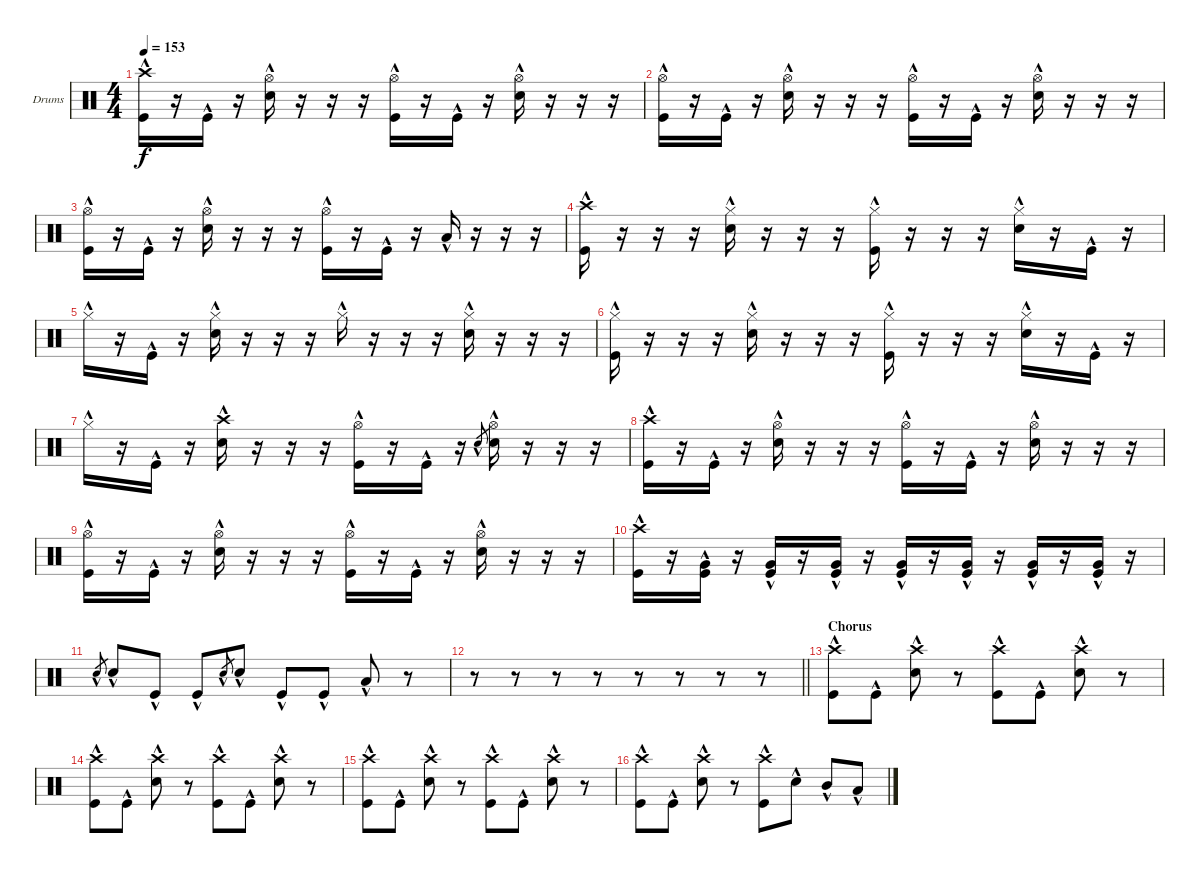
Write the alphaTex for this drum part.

\bracketExtendMode groupsimilarinstruments
\firstSystemTrackNameOrientation horizontal
\otherSystemsTrackNameOrientation horizontal
\track ("Drumkit" "Drums") {solo instrument percussion}
\staff {score}
\articulation defaults
\ts (4 4)
\tempo 153
\clef neutral
\ks c
("Crash high (hit)"{hac} "Kick (hit)"{hac}).16{dy f} r.16 "Kick (hit)"{hac}.16 r.16 ("Hi-Hat (open)"{hac} "Snare (hit) 2"{hac}).16 r.16 r.16 r.16 ("Hi-Hat (open)"{hac} "Kick (hit)"{hac}).16 r.16 "Kick (hit)"{hac}.16 r.16 ("Hi-Hat (open)"{hac} "Snare (hit) 2"{hac}).16 r.16 r.16 r.16 |
("Hi-Hat (open)"{hac} "Kick (hit)"{hac}).16 r.16 "Kick (hit)"{hac}.16 r.16 ("Hi-Hat (open)"{hac} "Snare (hit) 2"{hac}).16 r.16 r.16 r.16 ("Hi-Hat (open)"{hac} "Kick (hit)"{hac}).16 r.16 "Kick (hit)"{hac}.16 r.16 ("Hi-Hat (open)"{hac} "Snare (hit) 2"{hac}).16 r.16 r.16 r.16 |
("Hi-Hat (open)"{hac} "Kick (hit)"{hac}).16 r.16 "Kick (hit)"{hac}.16 r.16 ("Hi-Hat (open)"{hac} "Snare (hit) 2"{hac}).16 r.16 r.16 r.16 ("Hi-Hat (open)"{hac} "Kick (hit)"{hac}).16 r.16 "Kick (hit)"{hac}.16 r.16 "Low Tom (hit)"{hac}.16 r.16 r.16 r.16 |
("Crash high (hit)"{hac} "Kick (hit)"{hac}).16 r.16 r.16 r.16 ("Hi-Hat (closed)"{hac} "Snare (hit) 2"{hac}).16 r.16 r.16 r.16 ("Hi-Hat (closed)"{hac} "Kick (hit)"{hac}).16 r.16 r.16 r.16 ("Hi-Hat (closed)"{hac} "Snare (hit) 2"{hac}).16 r.16 "Kick (hit)"{hac}.16 r.16 |
"Hi-Hat (closed)"{hac}.16 r.16 "Kick (hit)"{hac}.16 r.16 ("Hi-Hat (closed)"{hac} "Snare (hit) 2"{hac}).16 r.16 r.16 r.16 "Hi-Hat (closed)"{hac}.16 r.16 r.16 r.16 ("Hi-Hat (closed)"{hac} "Snare (hit) 2"{hac}).16 r.16 r.16 r.16 |
("Hi-Hat (closed)"{hac} "Kick (hit)"{hac}).16 r.16 r.16 r.16 ("Hi-Hat (closed)"{hac} "Snare (hit) 2"{hac}).16 r.16 r.16 r.16 ("Hi-Hat (closed)"{hac} "Kick (hit)"{hac}).16 r.16 r.16 r.16 ("Hi-Hat (closed)"{hac} "Snare (hit) 2"{hac}).16 r.16 "Kick (hit)"{hac}.16 r.16 |
"Hi-Hat (closed)"{hac}.16 r.16 "Kick (hit)"{hac}.16 r.16 ("Crash high (hit)"{hac} "Snare (hit) 2"{hac}).16 r.16 r.16 r.16 ("Hi-Hat (open)"{hac} "Kick (hit)"{hac}).16 r.16 "Kick (hit)"{hac}.16 r.16 "Snare (hit) 2"{hac}.8{gr} ("Hi-Hat (open)"{hac} "Snare (hit) 2"{hac}).16 r.16 r.16 r.16 |
("Crash high (hit)"{hac} "Kick (hit)"{hac}).16 r.16 "Kick (hit)"{hac}.16 r.16 ("Hi-Hat (open)"{hac} "Snare (hit) 2"{hac}).16 r.16 r.16 r.16 ("Hi-Hat (open)"{hac} "Kick (hit)"{hac}).16 r.16 "Kick (hit)"{hac}.16 r.16 ("Hi-Hat (open)"{hac} "Snare (hit) 2"{hac}).16 r.16 r.16 r.16 |
("Hi-Hat (open)"{hac} "Kick (hit)"{hac}).16 r.16 "Kick (hit)"{hac}.16 r.16 ("Hi-Hat (open)"{hac} "Snare (hit) 2"{hac}).16 r.16 r.16 r.16 ("Hi-Hat (open)"{hac} "Kick (hit)"{hac}).16 r.16 "Kick (hit)"{hac}.16 r.16 ("Hi-Hat (open)"{hac} "Snare (hit) 2"{hac}).16 r.16 r.16 r.16 |
("Crash high (hit)"{hac} "Kick (hit)"{hac}).16 r.16 ("Very Low Tom (hit)"{hac} "Kick (hit)"{hac}).16 r.16 ("Very Low Tom (hit)"{hac} "Kick (hit)"{hac}).16 r.16 ("Very Low Tom (hit)"{hac} "Kick (hit)"{hac}).16 r.16 ("Very Low Tom (hit)"{hac} "Kick (hit)"{hac}).16 r.16 ("Very Low Tom (hit)"{hac} "Kick (hit)"{hac}).16 r.16 ("Very Low Tom (hit)"{hac} "Kick (hit)"{hac}).16 r.16 ("Very Low Tom (hit)"{hac} "Kick (hit)"{hac}).16 r.16 |
"Snare (hit) 2"{hac}.8{gr} "Snare (hit) 2"{hac}.8 "Kick (hit)"{hac}.8 "Kick (hit)"{hac}.8 "Snare (hit) 2"{hac}.8{gr} "Snare (hit) 2"{hac}.8 "Kick (hit)"{hac}.8 "Kick (hit)"{hac}.8 "Low Tom (hit)"{hac}.8 r.8 |
\barLineRight lightlight
r.8 r.8 r.8 r.8 r.8 r.8 r.8 r.8 |
\section ("" "Chorus")
("Crash high (hit)"{hac} "Kick (hit)"{hac}).8 "Kick (hit)"{hac}.8 ("Crash high (hit)"{hac} "Snare (hit) 2"{hac}).8 r.8 ("Crash high (hit)"{hac} "Kick (hit)"{hac}).8 "Kick (hit)"{hac}.8 ("Crash high (hit)"{hac} "Snare (hit) 2"{hac}).8 r.8 |
("Crash high (hit)"{hac} "Kick (hit)"{hac}).8 "Kick (hit)"{hac}.8 ("Crash high (hit)"{hac} "Snare (hit) 2"{hac}).8 r.8 ("Crash high (hit)"{hac} "Kick (hit)"{hac}).8 "Kick (hit)"{hac}.8 ("Crash high (hit)"{hac} "Snare (hit) 2"{hac}).8 r.8 |
("Crash high (hit)"{hac} "Kick (hit)"{hac}).8 "Kick (hit)"{hac}.8 ("Crash high (hit)"{hac} "Snare (hit) 2"{hac}).8 r.8 ("Crash high (hit)"{hac} "Kick (hit)"{hac}).8 "Kick (hit)"{hac}.8 ("Crash high (hit)"{hac} "Snare (hit) 2"{hac}).8 r.8 |
("Crash high (hit)"{hac} "Kick (hit)"{hac}).8 "Kick (hit)"{hac}.8 ("Crash high (hit)"{hac} "Snare (hit) 2"{hac}).8 r.8 ("Crash high (hit)"{hac} "Kick (hit)"{hac}).8 "Snare (hit) 2"{hac}.8 "Mid Tom (hit)"{hac}.8 "Low Tom (hit)"{hac}.8
